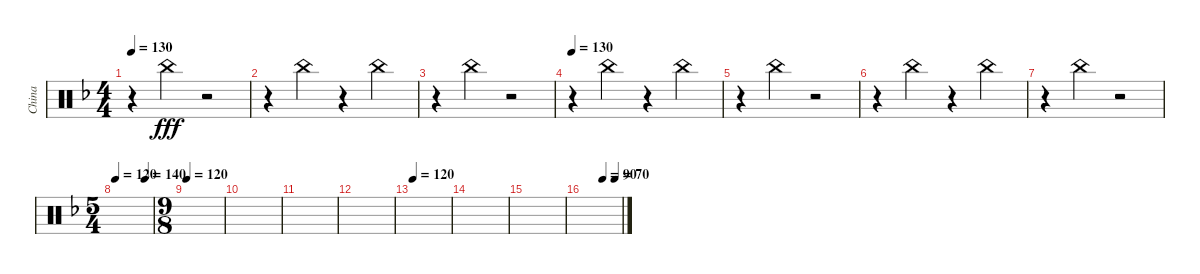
\track ("China" "China") {instrument percussion}
\staff {score}
\articulation defaults
\ts (4 4)
\tempo 130
\clef neutral
\ks dminor
r.4{dy fff} "China (hit)".4 r.2 |
r.4{balance 4} "China (hit)".4 r.4 "China (hit)".4 |
r.4 "China (hit)".4 r.2 |
\tempo 130
r.4{balance 4} "China (hit)".4 r.4 "China (hit)".4 |
r.4 "China (hit)".4 r.2 |
r.4{balance 4} "China (hit)".4 r.4 "China (hit)".4 |
r.4 "China (hit)".4 r.2 |
\ts (5 4)
\tempo 120
\tempo (140 0.8)
|
\ts (9 8)
\tempo 120
|
|
|
|
\tempo 120
|
|
|
\tempo (90 0.5)
\tempo (70 0.8333333333333334)
